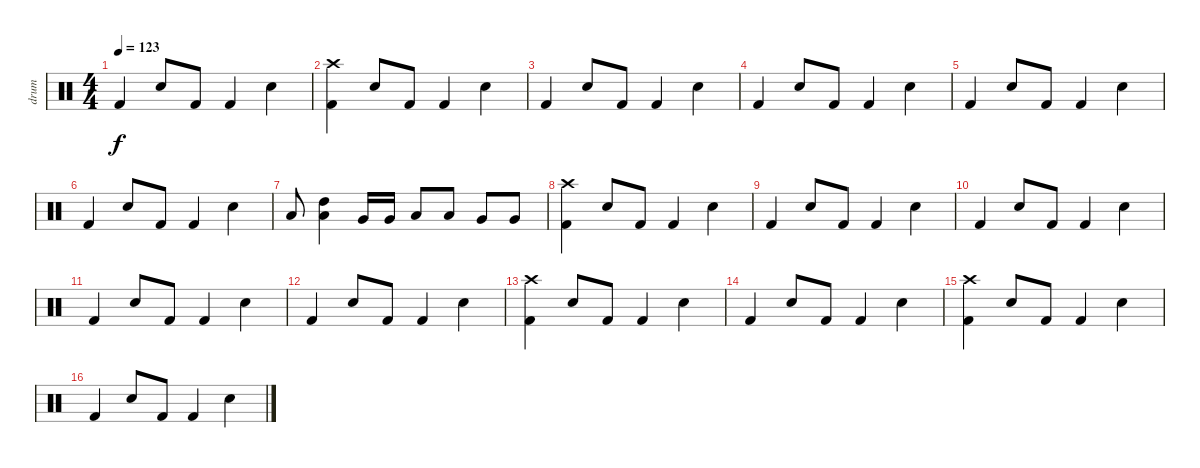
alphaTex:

\track ("drum" "drum") {instrument percussion}
\staff {score}
\articulation defaults
\ts (4 4)
\tempo 123
\clef neutral
\ks c "Kick (hit) 2".4{dy f} "Snare (hit) 2".8 "Kick (hit) 2".8 "Kick (hit) 2".4 "Snare (hit) 2".4
|
("Kick (hit) 2" "Crash high (hit)").4 "Snare (hit) 2".8 "Kick (hit) 2".8 "Kick (hit) 2".4 "Snare (hit) 2".4 |
"Kick (hit) 2".4 "Snare (hit) 2".8 "Kick (hit) 2".8 "Kick (hit) 2".4 "Snare (hit) 2".4 |
"Kick (hit) 2".4 "Snare (hit) 2".8 "Kick (hit) 2".8 "Kick (hit) 2".4 "Snare (hit) 2".4 |
"Kick (hit) 2".4 "Snare (hit) 2".8 "Kick (hit) 2".8 "Kick (hit) 2".4 "Snare (hit) 2".4 |
"Kick (hit) 2".4 "Snare (hit) 2".8 "Kick (hit) 2".8 "Kick (hit) 2".4 "Snare (hit) 2".4 |
"Low Tom (hit)".8 ("Low Tom (hit)" "High Tom (hit)").4 "Very Low Tom (hit)".16 "Very Low Tom (hit)".16 "Low Tom (hit)".8 "Low Tom (hit)".8 "Very Low Tom (hit)".8 "Very Low Tom (hit)".8 |
("Kick (hit) 2" "Crash high (hit)").4 "Snare (hit) 2".8 "Kick (hit) 2".8 "Kick (hit) 2".4 "Snare (hit) 2".4 |
"Kick (hit) 2".4 "Snare (hit) 2".8 "Kick (hit) 2".8 "Kick (hit) 2".4 "Snare (hit) 2".4 |
"Kick (hit) 2".4 "Snare (hit) 2".8 "Kick (hit) 2".8 "Kick (hit) 2".4 "Snare (hit) 2".4 |
"Kick (hit) 2".4 "Snare (hit) 2".8 "Kick (hit) 2".8 "Kick (hit) 2".4 "Snare (hit) 2".4 |
"Kick (hit) 2".4 "Snare (hit) 2".8 "Kick (hit) 2".8 "Kick (hit) 2".4 "Snare (hit) 2".4 |
("Kick (hit) 2" "Crash high (hit)").4 "Snare (hit) 2".8 "Kick (hit) 2".8 "Kick (hit) 2".4 "Snare (hit) 2".4 |
"Kick (hit) 2".4 "Snare (hit) 2".8 "Kick (hit) 2".8 "Kick (hit) 2".4 "Snare (hit) 2".4 |
("Kick (hit) 2" "Crash high (hit)").4 "Snare (hit) 2".8 "Kick (hit) 2".8 "Kick (hit) 2".4 "Snare (hit) 2".4 |
"Kick (hit) 2".4 "Snare (hit) 2".8 "Kick (hit) 2".8 "Kick (hit) 2".4 "Snare (hit) 2".4
